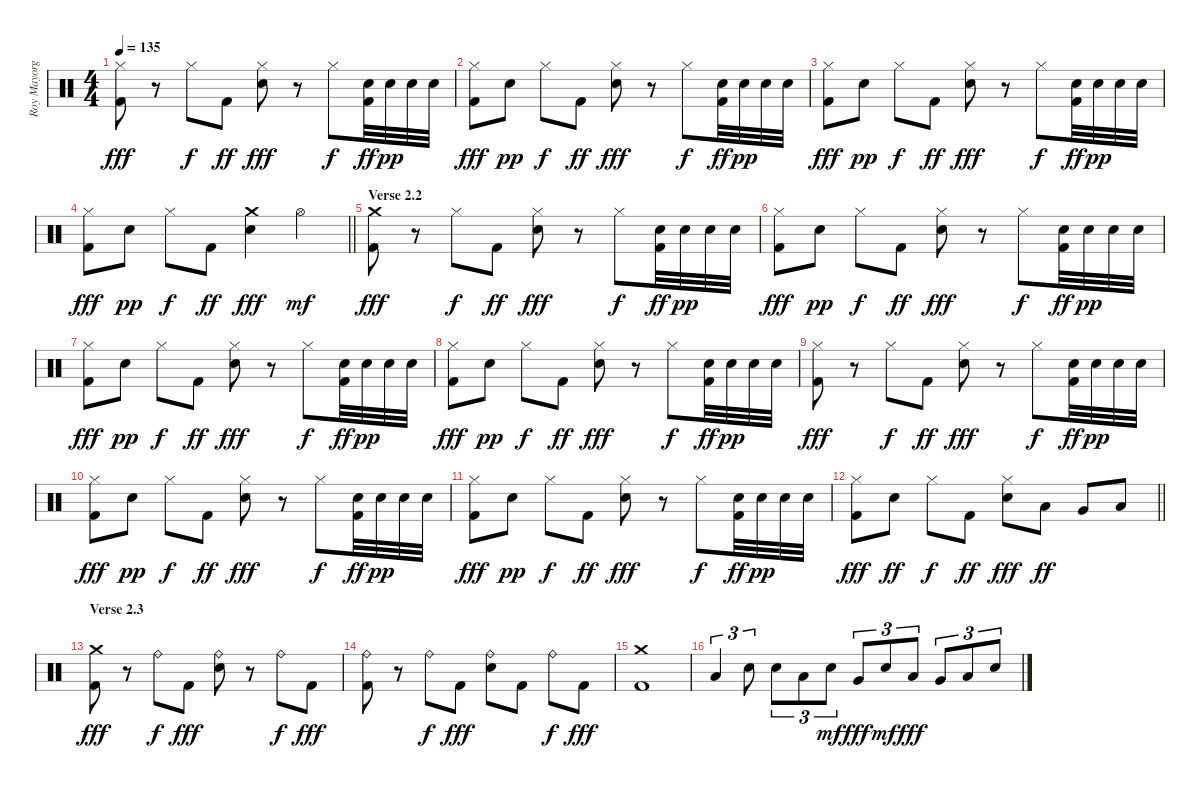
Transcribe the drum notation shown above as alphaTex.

\track ("Roy Mayorga" "Roy Mayorg") {instrument percussion}
\staff {score}
\articulation defaults
\ts (4 4)
\tempo 135
\clef neutral
\ks c
("Hi-Hat (closed)" "Kick (hit) 2").8{dy fff} r.8 "Hi-Hat (closed)".8{dy f} "Kick (hit) 2".8{dy ff} ("Hi-Hat (closed)" "Electric Snare (hit)").8{dy fff} r.8 "Hi-Hat (closed)".8{dy f} ("Electric Snare (hit)" "Kick (hit) 2").32{dy ff} "Electric Snare (hit)".32{dy pp} "Electric Snare (hit)".32 "Electric Snare (hit)".32 |
("Hi-Hat (closed)" "Kick (hit) 2").8{dy fff} "Electric Snare (hit)".8{dy pp} "Hi-Hat (closed)".8{dy f} "Kick (hit) 2".8{dy ff} ("Hi-Hat (closed)" "Electric Snare (hit)").8{dy fff} r.8 "Hi-Hat (closed)".8{dy f} ("Electric Snare (hit)" "Kick (hit) 2").32{dy ff} "Electric Snare (hit)".32{dy pp} "Electric Snare (hit)".32 "Electric Snare (hit)".32 |
("Hi-Hat (closed)" "Kick (hit) 2").8{dy fff} "Electric Snare (hit)".8{dy pp} "Hi-Hat (closed)".8{dy f} "Kick (hit) 2".8{dy ff} ("Hi-Hat (closed)" "Electric Snare (hit)").8{dy fff} r.8 "Hi-Hat (closed)".8{dy f} ("Electric Snare (hit)" "Kick (hit) 2").32{dy ff} "Electric Snare (hit)".32{dy pp} "Electric Snare (hit)".32 "Electric Snare (hit)".32 |
\barLineRight lightlight
("Hi-Hat (closed)" "Kick (hit) 2").8{dy fff} "Electric Snare (hit)".8{dy pp} "Hi-Hat (closed)".8{dy f} "Kick (hit) 2".8{dy ff} ("Crash medium (hit)" "Electric Snare (hit)").4{dy fff} "Hi-Hat (open)".4{dy mf} |
\section ("" "Verse 2.2")
("Crash medium (hit)" "Kick (hit) 2").8{dy fff} r.8 "Hi-Hat (closed)".8{dy f} "Kick (hit) 2".8{dy ff} ("Hi-Hat (closed)" "Electric Snare (hit)").8{dy fff} r.8 "Hi-Hat (closed)".8{dy f} ("Electric Snare (hit)" "Kick (hit) 2").32{dy ff} "Electric Snare (hit)".32{dy pp} "Electric Snare (hit)".32 "Electric Snare (hit)".32 |
("Hi-Hat (closed)" "Kick (hit) 2").8{dy fff} "Electric Snare (hit)".8{dy pp} "Hi-Hat (closed)".8{dy f} "Kick (hit) 2".8{dy ff} ("Hi-Hat (closed)" "Electric Snare (hit)").8{dy fff} r.8 "Hi-Hat (closed)".8{dy f} ("Electric Snare (hit)" "Kick (hit) 2").32{dy ff} "Electric Snare (hit)".32{dy pp} "Electric Snare (hit)".32 "Electric Snare (hit)".32 |
("Hi-Hat (closed)" "Kick (hit) 2").8{dy fff} "Electric Snare (hit)".8{dy pp} "Hi-Hat (closed)".8{dy f} "Kick (hit) 2".8{dy ff} ("Hi-Hat (closed)" "Electric Snare (hit)").8{dy fff} r.8 "Hi-Hat (closed)".8{dy f} ("Electric Snare (hit)" "Kick (hit) 2").32{dy ff} "Electric Snare (hit)".32{dy pp} "Electric Snare (hit)".32 "Electric Snare (hit)".32 |
("Hi-Hat (closed)" "Kick (hit) 2").8{dy fff} "Electric Snare (hit)".8{dy pp} "Hi-Hat (closed)".8{dy f} "Kick (hit) 2".8{dy ff} ("Hi-Hat (closed)" "Electric Snare (hit)").8{dy fff} r.8 "Hi-Hat (closed)".8{dy f} ("Electric Snare (hit)" "Kick (hit) 2").32{dy ff} "Electric Snare (hit)".32{dy pp} "Electric Snare (hit)".32 "Electric Snare (hit)".32 |
("Hi-Hat (closed)" "Kick (hit) 2").8{dy fff} r.8 "Hi-Hat (closed)".8{dy f} "Kick (hit) 2".8{dy ff} ("Hi-Hat (closed)" "Electric Snare (hit)").8{dy fff} r.8 "Hi-Hat (closed)".8{dy f} ("Electric Snare (hit)" "Kick (hit) 2").32{dy ff} "Electric Snare (hit)".32{dy pp} "Electric Snare (hit)".32 "Electric Snare (hit)".32 |
("Hi-Hat (closed)" "Kick (hit) 2").8{dy fff} "Electric Snare (hit)".8{dy pp} "Hi-Hat (closed)".8{dy f} "Kick (hit) 2".8{dy ff} ("Hi-Hat (closed)" "Electric Snare (hit)").8{dy fff} r.8 "Hi-Hat (closed)".8{dy f} ("Electric Snare (hit)" "Kick (hit) 2").32{dy ff} "Electric Snare (hit)".32{dy pp} "Electric Snare (hit)".32 "Electric Snare (hit)".32 |
("Hi-Hat (closed)" "Kick (hit) 2").8{dy fff} "Electric Snare (hit)".8{dy pp} "Hi-Hat (closed)".8{dy f} "Kick (hit) 2".8{dy ff} ("Hi-Hat (closed)" "Electric Snare (hit)").8{dy fff} r.8 "Hi-Hat (closed)".8{dy f} ("Electric Snare (hit)" "Kick (hit) 2").32{dy ff} "Electric Snare (hit)".32{dy pp} "Electric Snare (hit)".32 "Electric Snare (hit)".32 |
\barLineRight lightlight
("Hi-Hat (closed)" "Kick (hit) 2").8{dy fff} "Electric Snare (hit)".8{dy ff} "Hi-Hat (closed)".8{dy f} "Kick (hit) 2".8{dy ff} ("Hi-Hat (closed)" "Electric Snare (hit)").8{dy fff} "Low Tom (hit)".8{dy ff} "Very Low Tom (hit)".8 "Low Floor Tom (hit)".8 |
\section ("" "Verse 2.3")
("Crash medium (hit)" "Kick (hit) 2").8{dy fff} r.8 "Ride (bell)".8{dy f} "Kick (hit) 2".8{dy fff} ("Ride (bell)" "Electric Snare (hit)").8 r.8 "Ride (bell)".8{dy f} "Kick (hit) 2".8{dy fff} |
("Ride (bell)" "Kick (hit) 2").8 r.8 "Ride (bell)".8{dy f} "Kick (hit) 2".8{dy fff} ("Ride (bell)" "Electric Snare (hit)").8 "Kick (hit) 2".8 "Ride (bell)".8{dy f} "Kick (hit) 2".8{dy fff} |
("Crash medium (hit)" "Kick (hit) 2").1 |
"Low Tom (hit)".4{tu (3 2)} "Electric Snare (hit)".8{tu (3 2)} "Electric Snare (hit)".8{tu (3 2)} "Low Tom (hit)".8{tu (3 2)} "Electric Snare (hit)".8{tu (3 2) dy mf} "Very Low Tom (hit)".8{tu (3 2) dy fff} "Electric Snare (hit)".8{tu (3 2) dy mf} "Low Tom (hit)".8{tu (3 2) dy fff} "Very Low Tom (hit)".8{tu (3 2)} "Low Floor Tom (hit)".8{tu (3 2)} "Electric Snare (hit)".8{tu (3 2)}
